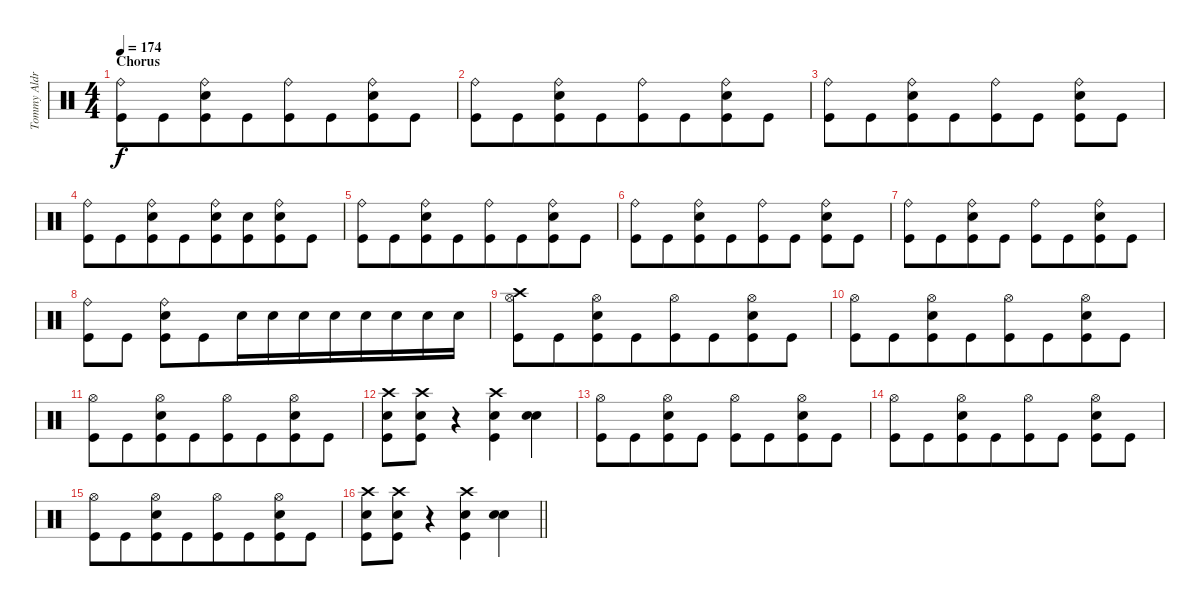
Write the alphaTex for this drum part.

\track ("Tommy Aldrige" "Tommy Aldr") {instrument percussion}
\staff {score}
\articulation defaults
\ts (4 4)
\section ("" "Chorus")
\tempo 174
\clef neutral
\ks c
("Ride (bell)" "Kick (hit)").8{dy f beam merge} "Kick (hit)".8{beam merge} ("Ride (bell)" "Kick (hit)" "Snare (hit) 2").8{beam merge} "Kick (hit)".8{beam merge} ("Ride (bell)" "Kick (hit)").8{beam merge} "Kick (hit)".8{beam merge} ("Ride (bell)" "Kick (hit)" "Snare (hit) 2").8{beam merge} "Kick (hit)".8 |
("Ride (bell)" "Kick (hit)").8{beam merge} "Kick (hit)".8{beam merge} ("Ride (bell)" "Kick (hit)" "Snare (hit) 2").8{beam merge} "Kick (hit)".8{beam merge} ("Ride (bell)" "Kick (hit)").8{beam merge} "Kick (hit)".8{beam merge} ("Ride (bell)" "Kick (hit)" "Snare (hit) 2").8 "Kick (hit)".8 |
("Ride (bell)" "Kick (hit)").8 "Kick (hit)".8{beam merge} ("Ride (bell)" "Kick (hit)" "Snare (hit) 2").8{beam merge} "Kick (hit)".8{beam merge} ("Ride (bell)" "Kick (hit)").8 "Kick (hit)".8 ("Ride (bell)" "Kick (hit)" "Snare (hit) 2").8 "Kick (hit)".8 |
("Ride (bell)" "Kick (hit)").8{beam merge} "Kick (hit)".8{beam merge} ("Ride (bell)" "Kick (hit)" "Snare (hit) 2").8{beam merge} "Kick (hit)".8{beam merge} ("Ride (bell)" "Kick (hit)" "Snare (hit) 2").8{beam merge} ("Kick (hit)" "Snare (hit) 2").8{beam merge} ("Ride (bell)" "Kick (hit)" "Snare (hit) 2").8{beam merge} "Kick (hit)".8 |
("Ride (bell)" "Kick (hit)").8 "Kick (hit)".8{beam merge} ("Ride (bell)" "Kick (hit)" "Snare (hit) 2").8 "Kick (hit)".8{beam merge} ("Ride (bell)" "Kick (hit)").8{beam merge} "Kick (hit)".8{beam merge} ("Ride (bell)" "Kick (hit)" "Snare (hit) 2").8{beam merge} "Kick (hit)".8 |
("Ride (bell)" "Kick (hit)").8{beam merge} "Kick (hit)".8{beam merge} ("Ride (bell)" "Kick (hit)" "Snare (hit) 2").8{beam merge} "Kick (hit)".8{beam merge} ("Ride (bell)" "Kick (hit)").8{beam merge} "Kick (hit)".8 ("Ride (bell)" "Kick (hit)" "Snare (hit) 2").8{beam merge} "Kick (hit)".8 |
("Ride (bell)" "Kick (hit)").8{beam merge} "Kick (hit)".8{beam merge} ("Ride (bell)" "Kick (hit)" "Snare (hit) 2").8{beam merge} "Kick (hit)".8 ("Ride (bell)" "Kick (hit)").8{beam merge} "Kick (hit)".8{beam merge} ("Ride (bell)" "Kick (hit)" "Snare (hit) 2").8{beam merge} "Kick (hit)".8 |
("Ride (bell)" "Kick (hit)").8{beam merge} "Kick (hit)".8 ("Ride (bell)" "Kick (hit)" "Snare (hit) 2").8{beam merge} "Kick (hit)".8{beam merge} "Snare (hit) 2".16{beam merge} "Snare (hit) 2".16{beam merge} "Snare (hit) 2".16{beam merge} "Snare (hit) 2".16{beam merge} "Snare (hit) 2".16{beam merge} "Snare (hit) 2".16{beam merge} "Snare (hit) 2".16{beam merge} "Snare (hit) 2".16 |
("Hi-Hat (open)" "Kick (hit)" "Crash high (hit)").8{beam merge} "Kick (hit)".8{beam merge} ("Hi-Hat (open)" "Kick (hit)" "Snare (hit) 2").8{beam merge} "Kick (hit)".8{beam merge} ("Hi-Hat (open)" "Kick (hit)").8{beam merge} "Kick (hit)".8{beam merge} ("Hi-Hat (open)" "Kick (hit)" "Snare (hit) 2").8{beam merge} "Kick (hit)".8 |
("Hi-Hat (open)" "Kick (hit)").8{beam merge} "Kick (hit)".8{beam merge} ("Hi-Hat (open)" "Kick (hit)" "Snare (hit) 2").8{beam merge} "Kick (hit)".8{beam merge} ("Hi-Hat (open)" "Kick (hit)").8{beam merge} "Kick (hit)".8{beam merge} ("Hi-Hat (open)" "Kick (hit)" "Snare (hit) 2").8 "Kick (hit)".8 |
("Hi-Hat (open)" "Kick (hit)").8{beam merge} "Kick (hit)".8{beam merge} ("Hi-Hat (open)" "Kick (hit)" "Snare (hit) 2").8{beam merge} "Kick (hit)".8{beam merge} ("Hi-Hat (open)" "Kick (hit)").8{beam merge} "Kick (hit)".8{beam merge} ("Hi-Hat (open)" "Kick (hit)" "Snare (hit) 2").8{beam merge} "Kick (hit)".8 |
("Crash high (hit)" "Kick (hit)" "Snare (hit) 2").8 ("Crash high (hit)" "Kick (hit)" "Snare (hit) 2").8{beam merge} r.4 ("Crash high (hit)" "Kick (hit)" "Snare (hit) 2").4{beam merge} ("Snare (hit) 2" "Snare (hit) 2").4{bu 240} |
("Hi-Hat (open)" "Kick (hit)").8{beam merge} "Kick (hit)".8{beam merge} ("Hi-Hat (open)" "Kick (hit)" "Snare (hit) 2").8{beam merge} "Kick (hit)".8 ("Hi-Hat (open)" "Kick (hit)").8{beam merge} "Kick (hit)".8{beam merge} ("Hi-Hat (open)" "Kick (hit)" "Snare (hit) 2").8{beam merge} "Kick (hit)".8 |
("Hi-Hat (open)" "Kick (hit)").8{beam merge} "Kick (hit)".8{beam merge} ("Hi-Hat (open)" "Kick (hit)" "Snare (hit) 2").8{beam merge} "Kick (hit)".8{beam merge} ("Hi-Hat (open)" "Kick (hit)").8{beam merge} "Kick (hit)".8 ("Hi-Hat (open)" "Kick (hit)" "Snare (hit) 2").8{beam merge} "Kick (hit)".8 |
("Hi-Hat (open)" "Kick (hit)").8 "Kick (hit)".8{beam merge} ("Hi-Hat (open)" "Kick (hit)" "Snare (hit) 2").8{beam merge} "Kick (hit)".8{beam merge} ("Hi-Hat (open)" "Kick (hit)").8{beam merge} "Kick (hit)".8{beam merge} ("Hi-Hat (open)" "Kick (hit)" "Snare (hit) 2").8{beam merge} "Kick (hit)".8 |
\barLineRight lightlight
("Crash high (hit)" "Kick (hit)" "Snare (hit) 2").8{beam merge} ("Crash high (hit)" "Kick (hit)" "Snare (hit) 2").8{beam merge} r.4{beam merge} ("Crash high (hit)" "Kick (hit)" "Snare (hit) 2").4{beam merge} ("Snare (hit) 2" "Snare (hit) 2").4{bu 240}
